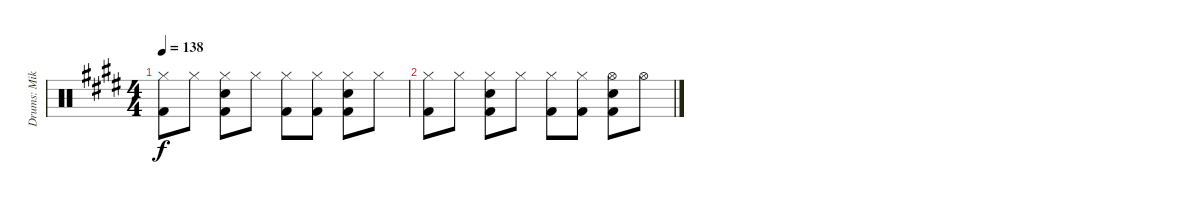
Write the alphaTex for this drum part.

\track ("Drums: Mike" "Drums: Mik") {instrument percussion}
\staff {score}
\articulation defaults
\ts (4 4)
\tempo 138
\clef neutral
\ks e
("Hi-Hat (closed)" "Kick (hit) 2").8{dy f} "Hi-Hat (closed)".8 ("Hi-Hat (closed)" "Electric Snare (hit)" "Kick (hit) 2").8 "Hi-Hat (closed)".8 ("Hi-Hat (closed)" "Kick (hit) 2").8 ("Hi-Hat (closed)" "Kick (hit) 2").8 ("Hi-Hat (closed)" "Electric Snare (hit)" "Kick (hit) 2").8 "Hi-Hat (closed)".8 |
("Hi-Hat (closed)" "Kick (hit) 2").8 "Hi-Hat (closed)".8 ("Hi-Hat (closed)" "Electric Snare (hit)" "Kick (hit) 2").8 "Hi-Hat (closed)".8 ("Hi-Hat (closed)" "Kick (hit) 2").8 ("Hi-Hat (closed)" "Kick (hit) 2").8 ("Hi-Hat (open)" "Electric Snare (hit)" "Kick (hit) 2").8 "Hi-Hat (open)".8
